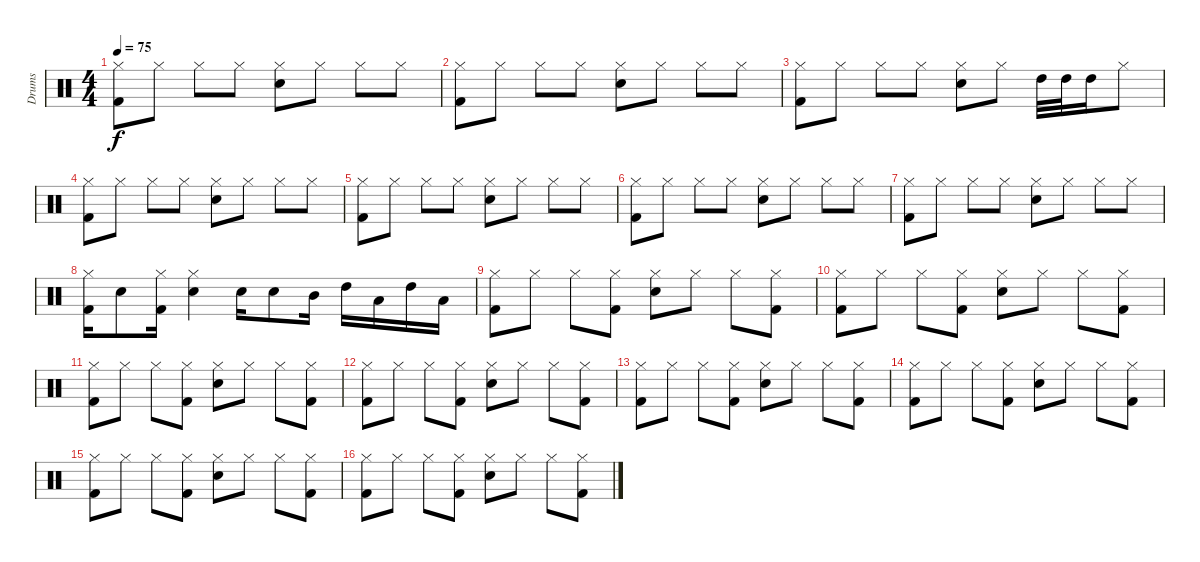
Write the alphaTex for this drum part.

\track ("Drums" "Drums") {instrument percussion}
\staff {score}
\articulation defaults
\ts (4 4)
\tempo 75
\clef neutral
\ks c
("Kick (hit) 2" "Hi-Hat (closed)").8{dy f} "Hi-Hat (closed)".8 "Hi-Hat (closed)".8 "Hi-Hat (closed)".8 ("Snare (hit) 2" "Hi-Hat (closed)").8 "Hi-Hat (closed)".8 "Hi-Hat (closed)".8 "Hi-Hat (closed)".8 |
("Kick (hit) 2" "Hi-Hat (closed)").8 "Hi-Hat (closed)".8 "Hi-Hat (closed)".8 "Hi-Hat (closed)".8 ("Snare (hit) 2" "Hi-Hat (closed)").8 "Hi-Hat (closed)".8 "Hi-Hat (closed)".8 "Hi-Hat (closed)".8 |
("Kick (hit) 2" "Hi-Hat (closed)").8 "Hi-Hat (closed)".8 "Hi-Hat (closed)".8 "Hi-Hat (closed)".8 ("Snare (hit) 2" "Hi-Hat (closed)").8 "Hi-Hat (closed)".8 "High Tom (hit)".32 "High Tom (hit)".32 "High Tom (hit)".16 "Hi-Hat (closed)".8 |
("Kick (hit) 2" "Hi-Hat (closed)").8 "Hi-Hat (closed)".8 "Hi-Hat (closed)".8 "Hi-Hat (closed)".8 ("Snare (hit) 2" "Hi-Hat (closed)").8 "Hi-Hat (closed)".8 "Hi-Hat (closed)".8 "Hi-Hat (closed)".8 |
("Kick (hit) 2" "Hi-Hat (closed)").8 "Hi-Hat (closed)".8 "Hi-Hat (closed)".8 "Hi-Hat (closed)".8 ("Snare (hit) 2" "Hi-Hat (closed)").8 "Hi-Hat (closed)".8 "Hi-Hat (closed)".8 "Hi-Hat (closed)".8 |
("Kick (hit) 2" "Hi-Hat (closed)").8 "Hi-Hat (closed)".8 "Hi-Hat (closed)".8 "Hi-Hat (closed)".8 ("Snare (hit) 2" "Hi-Hat (closed)").8 "Hi-Hat (closed)".8 "Hi-Hat (closed)".8 "Hi-Hat (closed)".8 |
("Kick (hit) 2" "Hi-Hat (closed)").8 "Hi-Hat (closed)".8 "Hi-Hat (closed)".8 "Hi-Hat (closed)".8 ("Snare (hit) 2" "Hi-Hat (closed)").8 "Hi-Hat (closed)".8 "Hi-Hat (closed)".8 "Hi-Hat (closed)".8 |
("Kick (hit) 2" "Hi-Hat (closed)").16 "Snare (hit) 2".8 ("Kick (hit) 2" "Hi-Hat (closed)").16 ("Snare (hit) 2" "Hi-Hat (closed)").4 "Snare (hit) 2".16 "Snare (hit) 2".8 "Mid Tom (hit)".16 "High Tom (hit)".16 "Low Tom (hit)".16 "High Tom (hit)".16 "Low Tom (hit)".16 |
("Kick (hit) 2" "Hi-Hat (closed)").8 "Hi-Hat (closed)".8 "Hi-Hat (closed)".8 ("Kick (hit) 2" "Hi-Hat (closed)").8 ("Snare (hit) 2" "Hi-Hat (closed)").8 "Hi-Hat (closed)".8 "Hi-Hat (closed)".8 ("Kick (hit) 2" "Hi-Hat (closed)").8 |
("Kick (hit) 2" "Hi-Hat (closed)").8 "Hi-Hat (closed)".8 "Hi-Hat (closed)".8 ("Kick (hit) 2" "Hi-Hat (closed)").8 ("Snare (hit) 2" "Hi-Hat (closed)").8 "Hi-Hat (closed)".8 "Hi-Hat (closed)".8 ("Kick (hit) 2" "Hi-Hat (closed)").8 |
("Kick (hit) 2" "Hi-Hat (closed)").8 "Hi-Hat (closed)".8 "Hi-Hat (closed)".8 ("Kick (hit) 2" "Hi-Hat (closed)").8 ("Snare (hit) 2" "Hi-Hat (closed)").8 "Hi-Hat (closed)".8 "Hi-Hat (closed)".8 ("Kick (hit) 2" "Hi-Hat (closed)").8 |
("Kick (hit) 2" "Hi-Hat (closed)").8 "Hi-Hat (closed)".8 "Hi-Hat (closed)".8 ("Kick (hit) 2" "Hi-Hat (closed)").8 ("Snare (hit) 2" "Hi-Hat (closed)").8 "Hi-Hat (closed)".8 "Hi-Hat (closed)".8 ("Kick (hit) 2" "Hi-Hat (closed)").8 |
("Kick (hit) 2" "Hi-Hat (closed)").8 "Hi-Hat (closed)".8 "Hi-Hat (closed)".8 ("Kick (hit) 2" "Hi-Hat (closed)").8 ("Snare (hit) 2" "Hi-Hat (closed)").8 "Hi-Hat (closed)".8 "Hi-Hat (closed)".8 ("Kick (hit) 2" "Hi-Hat (closed)").8 |
("Kick (hit) 2" "Hi-Hat (closed)").8 "Hi-Hat (closed)".8 "Hi-Hat (closed)".8 ("Kick (hit) 2" "Hi-Hat (closed)").8 ("Snare (hit) 2" "Hi-Hat (closed)").8 "Hi-Hat (closed)".8 "Hi-Hat (closed)".8 ("Kick (hit) 2" "Hi-Hat (closed)").8 |
("Kick (hit) 2" "Hi-Hat (closed)").8 "Hi-Hat (closed)".8 "Hi-Hat (closed)".8 ("Kick (hit) 2" "Hi-Hat (closed)").8 ("Snare (hit) 2" "Hi-Hat (closed)").8 "Hi-Hat (closed)".8 "Hi-Hat (closed)".8 ("Kick (hit) 2" "Hi-Hat (closed)").8 |
("Kick (hit) 2" "Hi-Hat (closed)").8 "Hi-Hat (closed)".8 "Hi-Hat (closed)".8 ("Kick (hit) 2" "Hi-Hat (closed)").8 ("Snare (hit) 2" "Hi-Hat (closed)").8 "Hi-Hat (closed)".8 "Hi-Hat (closed)".8 ("Kick (hit) 2" "Hi-Hat (closed)").8
